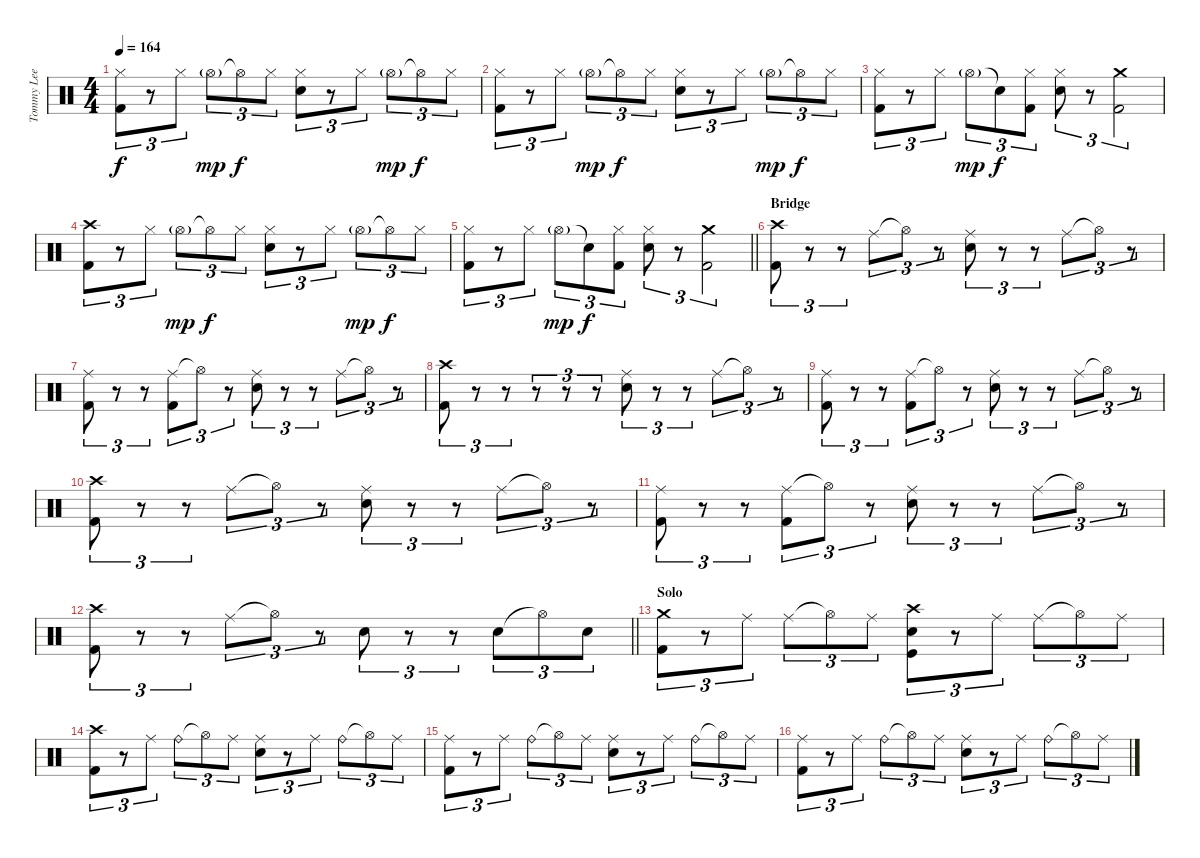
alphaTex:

\track ("Tommy Lee" "Tommy Lee") {instrument percussion}
\staff {score}
\articulation defaults
\ts (4 4)
\tempo 164
\clef neutral
\ks c
("Hi-Hat (closed)" "Kick (hit) 2").8{tu (3 2) dy f} r.8{tu (3 2)} "Hi-Hat (closed)".8{tu (3 2)} "Hi-Hat (open)"{g}.8{tu (3 2) dy mp} "Hi-Hat (open)"{t}.8{tu (3 2) dy f} "Hi-Hat (closed)".8{tu (3 2)} ("Hi-Hat (closed)" "Snare (hit) 2").8{tu (3 2)} r.8{tu (3 2)} "Hi-Hat (closed)".8{tu (3 2)} "Hi-Hat (open)"{g}.8{tu (3 2) dy mp} "Hi-Hat (open)"{t}.8{tu (3 2) dy f} "Hi-Hat (closed)".8{tu (3 2)} |
("Hi-Hat (closed)" "Kick (hit) 2").8{tu (3 2)} r.8{tu (3 2)} "Hi-Hat (closed)".8{tu (3 2)} "Hi-Hat (open)"{g}.8{tu (3 2) dy mp} "Hi-Hat (open)"{t}.8{tu (3 2) dy f} "Hi-Hat (closed)".8{tu (3 2)} ("Hi-Hat (closed)" "Snare (hit) 2").8{tu (3 2)} r.8{tu (3 2)} "Hi-Hat (closed)".8{tu (3 2)} "Hi-Hat (open)"{g}.8{tu (3 2) dy mp} "Hi-Hat (open)"{t}.8{tu (3 2) dy f} "Hi-Hat (closed)".8{tu (3 2)} |
("Hi-Hat (closed)" "Kick (hit) 2").8{tu (3 2)} r.8{tu (3 2)} "Hi-Hat (closed)".8{tu (3 2)} "Hi-Hat (open)"{g}.8{tu (3 2) dy mp} "Snare (hit)"{t}.8{tu (3 2) dy f} ("Hi-Hat (closed)" "Kick (hit) 2").8{tu (3 2)} ("Hi-Hat (closed)" "Snare (hit) 2").8{tu (3 2)} r.8{tu (3 2)} ("Crash medium (hit)" "Kick (hit) 2").2{tu (3 2)} |
("Crash high (hit)" "Kick (hit) 2").8{tu (3 2)} r.8{tu (3 2)} "Hi-Hat (closed)".8{tu (3 2)} "Hi-Hat (open)"{g}.8{tu (3 2) dy mp} "Hi-Hat (open)"{t}.8{tu (3 2) dy f} "Hi-Hat (closed)".8{tu (3 2)} ("Hi-Hat (closed)" "Snare (hit) 2").8{tu (3 2)} r.8{tu (3 2)} "Hi-Hat (closed)".8{tu (3 2)} "Hi-Hat (open)"{g}.8{tu (3 2) dy mp} "Hi-Hat (open)"{t}.8{tu (3 2) dy f} "Hi-Hat (closed)".8{tu (3 2)} |
\barLineRight lightlight
("Hi-Hat (closed)" "Kick (hit) 2").8{tu (3 2)} r.8{tu (3 2)} "Hi-Hat (closed)".8{tu (3 2)} "Hi-Hat (open)"{g}.8{tu (3 2) dy mp} "Snare (hit)"{t}.8{tu (3 2) dy f} ("Hi-Hat (closed)" "Kick (hit) 2").8{tu (3 2)} ("Hi-Hat (closed)" "Snare (hit) 2").8{tu (3 2)} r.8{tu (3 2)} ("Crash medium (hit)" "Kick (hit) 2").2{tu (3 2)} |
\section ("" "Bridge")
("Crash high (hit)" "Kick (hit) 2").8{tu (3 2)} r.8{tu (3 2)} r.8{tu (3 2)} "Ride (middle)".8{tu (3 2)} "Hi-Hat (open)"{t}.8{tu (3 2)} r.8{tu (3 2)} ("Ride (middle)" "Snare (hit) 2").8{tu (3 2)} r.8{tu (3 2)} r.8{tu (3 2)} "Ride (middle)".8{tu (3 2)} "Hi-Hat (open)"{t}.8{tu (3 2)} r.8{tu (3 2)} |
("Ride (middle)" "Kick (hit) 2").8{tu (3 2)} r.8{tu (3 2)} r.8{tu (3 2)} ("Ride (middle)" "Kick (hit) 2").8{tu (3 2)} "Hi-Hat (open)"{t}.8{tu (3 2)} r.8{tu (3 2)} ("Ride (middle)" "Snare (hit) 2").8{tu (3 2)} r.8{tu (3 2)} r.8{tu (3 2)} "Ride (middle)".8{tu (3 2)} "Hi-Hat (open)"{t}.8{tu (3 2)} r.8{tu (3 2)} |
("Crash high (hit)" "Kick (hit) 2").8{tu (3 2)} r.8{tu (3 2)} r.8{tu (3 2)} r.8{tu (3 2)} r.8{tu (3 2)} r.8{tu (3 2)} ("Ride (middle)" "Snare (hit) 2").8{tu (3 2)} r.8{tu (3 2)} r.8{tu (3 2)} "Ride (middle)".8{tu (3 2)} "Hi-Hat (open)"{t}.8{tu (3 2)} r.8{tu (3 2)} |
("Ride (middle)" "Kick (hit) 2").8{tu (3 2)} r.8{tu (3 2)} r.8{tu (3 2)} ("Ride (middle)" "Kick (hit) 2").8{tu (3 2)} "Hi-Hat (open)"{t}.8{tu (3 2)} r.8{tu (3 2)} ("Ride (middle)" "Snare (hit) 2").8{tu (3 2)} r.8{tu (3 2)} r.8{tu (3 2)} "Ride (middle)".8{tu (3 2)} "Hi-Hat (open)"{t}.8{tu (3 2)} r.8{tu (3 2)} |
("Crash high (hit)" "Kick (hit) 2").8{tu (3 2)} r.8{tu (3 2)} r.8{tu (3 2)} "Ride (middle)".8{tu (3 2)} "Hi-Hat (open)"{t}.8{tu (3 2)} r.8{tu (3 2)} ("Ride (middle)" "Snare (hit) 2").8{tu (3 2)} r.8{tu (3 2)} r.8{tu (3 2)} "Ride (middle)".8{tu (3 2)} "Hi-Hat (open)"{t}.8{tu (3 2)} r.8{tu (3 2)} |
("Ride (middle)" "Kick (hit) 2").8{tu (3 2)} r.8{tu (3 2)} r.8{tu (3 2)} ("Ride (middle)" "Kick (hit) 2").8{tu (3 2)} "Hi-Hat (open)"{t}.8{tu (3 2)} r.8{tu (3 2)} ("Ride (middle)" "Snare (hit) 2").8{tu (3 2)} r.8{tu (3 2)} r.8{tu (3 2)} "Ride (middle)".8{tu (3 2)} "Hi-Hat (open)"{t}.8{tu (3 2)} r.8{tu (3 2)} |
\barLineRight lightlight
("Crash high (hit)" "Kick (hit) 2").8{tu (3 2)} r.8{tu (3 2)} r.8{tu (3 2)} "Ride (middle)".8{tu (3 2)} "Hi-Hat (open)"{t}.8{tu (3 2)} r.8{tu (3 2)} "Snare (hit) 2".8{tu (3 2)} r.8{tu (3 2)} r.8{tu (3 2)} "Snare (hit) 2".8{tu (3 2)} "Hi-Hat (open)"{t}.8{tu (3 2)} "Snare (hit) 2".8{tu (3 2)} |
\section ("" "Solo")
("Crash medium (hit)" "Kick (hit) 2").8{tu (3 2)} r.8{tu (3 2)} "Ride (middle)".8{tu (3 2)} "Ride (middle)".8{tu (3 2)} "Hi-Hat (open)"{t}.8{tu (3 2)} "Ride (middle)".8{tu (3 2)} ("Crash high (hit)" "Snare (hit) 2" "Kick (hit)").8{tu (3 2)} r.8{tu (3 2)} "Ride (middle)".8{tu (3 2)} "Ride (middle)".8{tu (3 2)} "Hi-Hat (open)"{t}.8{tu (3 2)} "Ride (middle)".8{tu (3 2)} |
("Crash high (hit)" "Kick (hit) 2").8{tu (3 2)} r.8{tu (3 2)} "Ride (middle)".8{tu (3 2)} "Ride (bell)".8{tu (3 2)} "Hi-Hat (open)"{t}.8{tu (3 2)} "Ride (middle)".8{tu (3 2)} ("Ride (middle)" "Snare (hit) 2").8{tu (3 2)} r.8{tu (3 2)} "Ride (middle)".8{tu (3 2)} "Ride (bell)".8{tu (3 2)} "Hi-Hat (open)"{t}.8{tu (3 2)} "Ride (middle)".8{tu (3 2)} |
("Ride (middle)" "Kick (hit) 2").8{tu (3 2)} r.8{tu (3 2)} "Ride (middle)".8{tu (3 2)} "Ride (bell)".8{tu (3 2)} "Hi-Hat (open)"{t}.8{tu (3 2)} "Ride (middle)".8{tu (3 2)} ("Ride (middle)" "Snare (hit) 2").8{tu (3 2)} r.8{tu (3 2)} "Ride (middle)".8{tu (3 2)} "Ride (bell)".8{tu (3 2)} "Hi-Hat (open)"{t}.8{tu (3 2)} "Ride (middle)".8{tu (3 2)} |
("Ride (middle)" "Kick (hit) 2").8{tu (3 2)} r.8{tu (3 2)} "Ride (middle)".8{tu (3 2)} "Ride (bell)".8{tu (3 2)} "Hi-Hat (open)"{t}.8{tu (3 2)} "Ride (middle)".8{tu (3 2)} ("Ride (middle)" "Snare (hit) 2").8{tu (3 2)} r.8{tu (3 2)} "Ride (middle)".8{tu (3 2)} "Ride (bell)".8{tu (3 2)} "Hi-Hat (open)"{t}.8{tu (3 2)} "Ride (middle)".8{tu (3 2)}
